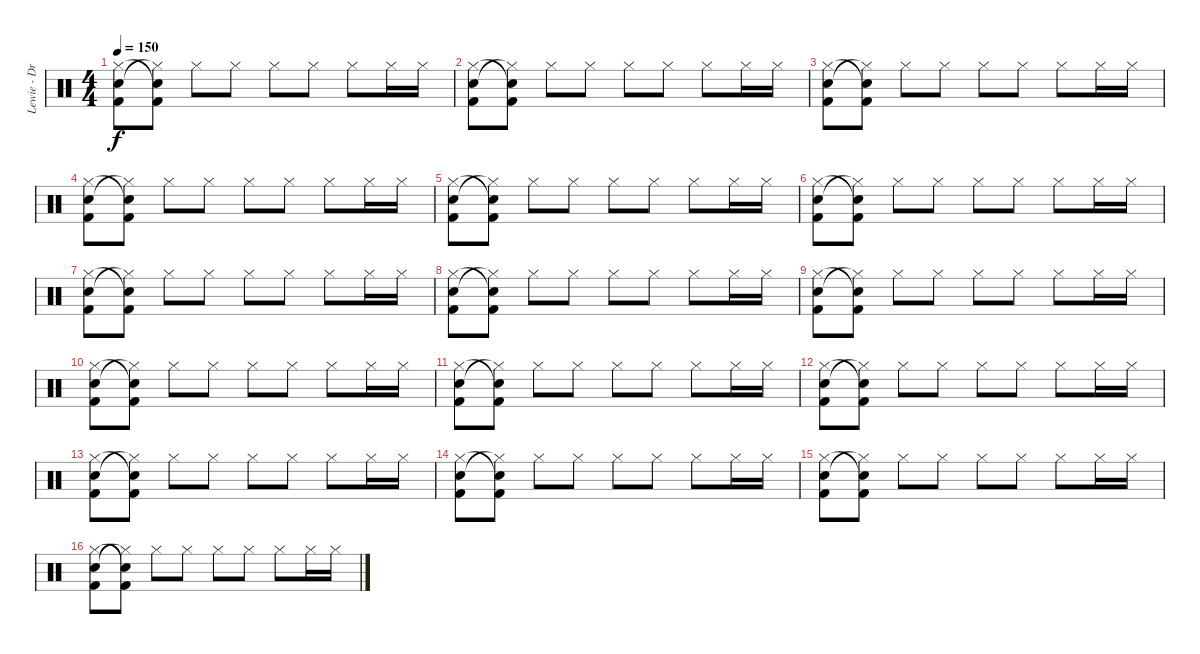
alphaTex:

\track ("Lewie - Drums" "Lewie - Dr") {instrument percussion}
\staff {score}
\articulation defaults
\ts (4 4)
\tempo 150
\clef neutral
\ks c
("Electric Snare (hit)" "Hi-Hat (closed)" "Kick (hit) 2").8{dy f} ("Hi-Hat (closed)"{t} "Snare (hit)"{t} "Kick (hit) 2").8 "Hi-Hat (closed)".8 "Hi-Hat (closed)".8 "Hi-Hat (closed)".8 "Hi-Hat (closed)".8 "Hi-Hat (closed)".8 "Hi-Hat (closed)".16 "Hi-Hat (closed)".16 |
("Electric Snare (hit)" "Hi-Hat (closed)" "Kick (hit) 2").8 ("Hi-Hat (closed)"{t} "Snare (hit)"{t} "Kick (hit) 2").8 "Hi-Hat (closed)".8 "Hi-Hat (closed)".8 "Hi-Hat (closed)".8 "Hi-Hat (closed)".8 "Hi-Hat (closed)".8 "Hi-Hat (closed)".16 "Hi-Hat (closed)".16 |
("Electric Snare (hit)" "Hi-Hat (closed)" "Kick (hit) 2").8 ("Hi-Hat (closed)"{t} "Snare (hit)"{t} "Kick (hit) 2").8 "Hi-Hat (closed)".8 "Hi-Hat (closed)".8 "Hi-Hat (closed)".8 "Hi-Hat (closed)".8 "Hi-Hat (closed)".8 "Hi-Hat (closed)".16 "Hi-Hat (closed)".16 |
("Electric Snare (hit)" "Hi-Hat (closed)" "Kick (hit) 2").8 ("Hi-Hat (closed)"{t} "Snare (hit)"{t} "Kick (hit) 2").8 "Hi-Hat (closed)".8 "Hi-Hat (closed)".8 "Hi-Hat (closed)".8 "Hi-Hat (closed)".8 "Hi-Hat (closed)".8 "Hi-Hat (closed)".16 "Hi-Hat (closed)".16 |
("Electric Snare (hit)" "Hi-Hat (closed)" "Kick (hit) 2").8 ("Hi-Hat (closed)"{t} "Snare (hit)"{t} "Kick (hit) 2").8 "Hi-Hat (closed)".8 "Hi-Hat (closed)".8 "Hi-Hat (closed)".8 "Hi-Hat (closed)".8 "Hi-Hat (closed)".8 "Hi-Hat (closed)".16 "Hi-Hat (closed)".16 |
("Electric Snare (hit)" "Hi-Hat (closed)" "Kick (hit) 2").8 ("Hi-Hat (closed)"{t} "Snare (hit)"{t} "Kick (hit) 2").8 "Hi-Hat (closed)".8 "Hi-Hat (closed)".8 "Hi-Hat (closed)".8 "Hi-Hat (closed)".8 "Hi-Hat (closed)".8 "Hi-Hat (closed)".16 "Hi-Hat (closed)".16 |
("Electric Snare (hit)" "Hi-Hat (closed)" "Kick (hit) 2").8 ("Hi-Hat (closed)"{t} "Snare (hit)"{t} "Kick (hit) 2").8 "Hi-Hat (closed)".8 "Hi-Hat (closed)".8 "Hi-Hat (closed)".8 "Hi-Hat (closed)".8 "Hi-Hat (closed)".8 "Hi-Hat (closed)".16 "Hi-Hat (closed)".16 |
("Electric Snare (hit)" "Hi-Hat (closed)" "Kick (hit) 2").8 ("Hi-Hat (closed)"{t} "Snare (hit)"{t} "Kick (hit) 2").8 "Hi-Hat (closed)".8 "Hi-Hat (closed)".8 "Hi-Hat (closed)".8 "Hi-Hat (closed)".8 "Hi-Hat (closed)".8 "Hi-Hat (closed)".16 "Hi-Hat (closed)".16 |
("Electric Snare (hit)" "Hi-Hat (closed)" "Kick (hit) 2").8 ("Hi-Hat (closed)"{t} "Snare (hit)"{t} "Kick (hit) 2").8 "Hi-Hat (closed)".8 "Hi-Hat (closed)".8 "Hi-Hat (closed)".8 "Hi-Hat (closed)".8 "Hi-Hat (closed)".8 "Hi-Hat (closed)".16 "Hi-Hat (closed)".16 |
("Electric Snare (hit)" "Hi-Hat (closed)" "Kick (hit) 2").8 ("Hi-Hat (closed)"{t} "Snare (hit)"{t} "Kick (hit) 2").8 "Hi-Hat (closed)".8 "Hi-Hat (closed)".8 "Hi-Hat (closed)".8 "Hi-Hat (closed)".8 "Hi-Hat (closed)".8 "Hi-Hat (closed)".16 "Hi-Hat (closed)".16 |
("Electric Snare (hit)" "Hi-Hat (closed)" "Kick (hit) 2").8 ("Hi-Hat (closed)"{t} "Snare (hit)"{t} "Kick (hit) 2").8 "Hi-Hat (closed)".8 "Hi-Hat (closed)".8 "Hi-Hat (closed)".8 "Hi-Hat (closed)".8 "Hi-Hat (closed)".8 "Hi-Hat (closed)".16 "Hi-Hat (closed)".16 |
("Electric Snare (hit)" "Hi-Hat (closed)" "Kick (hit) 2").8 ("Hi-Hat (closed)"{t} "Snare (hit)"{t} "Kick (hit) 2").8 "Hi-Hat (closed)".8 "Hi-Hat (closed)".8 "Hi-Hat (closed)".8 "Hi-Hat (closed)".8 "Hi-Hat (closed)".8 "Hi-Hat (closed)".16 "Hi-Hat (closed)".16 |
("Electric Snare (hit)" "Hi-Hat (closed)" "Kick (hit) 2").8 ("Hi-Hat (closed)"{t} "Snare (hit)"{t} "Kick (hit) 2").8 "Hi-Hat (closed)".8 "Hi-Hat (closed)".8 "Hi-Hat (closed)".8 "Hi-Hat (closed)".8 "Hi-Hat (closed)".8 "Hi-Hat (closed)".16 "Hi-Hat (closed)".16 |
("Electric Snare (hit)" "Hi-Hat (closed)" "Kick (hit) 2").8 ("Hi-Hat (closed)"{t} "Snare (hit)"{t} "Kick (hit) 2").8 "Hi-Hat (closed)".8 "Hi-Hat (closed)".8 "Hi-Hat (closed)".8 "Hi-Hat (closed)".8 "Hi-Hat (closed)".8 "Hi-Hat (closed)".16 "Hi-Hat (closed)".16 |
("Electric Snare (hit)" "Hi-Hat (closed)" "Kick (hit) 2").8 ("Hi-Hat (closed)"{t} "Snare (hit)"{t} "Kick (hit) 2").8 "Hi-Hat (closed)".8 "Hi-Hat (closed)".8 "Hi-Hat (closed)".8 "Hi-Hat (closed)".8 "Hi-Hat (closed)".8 "Hi-Hat (closed)".16 "Hi-Hat (closed)".16 |
("Electric Snare (hit)" "Hi-Hat (closed)" "Kick (hit) 2").8 ("Hi-Hat (closed)"{t} "Snare (hit)"{t} "Kick (hit) 2").8 "Hi-Hat (closed)".8 "Hi-Hat (closed)".8 "Hi-Hat (closed)".8 "Hi-Hat (closed)".8 "Hi-Hat (closed)".8 "Hi-Hat (closed)".16 "Hi-Hat (closed)".16
